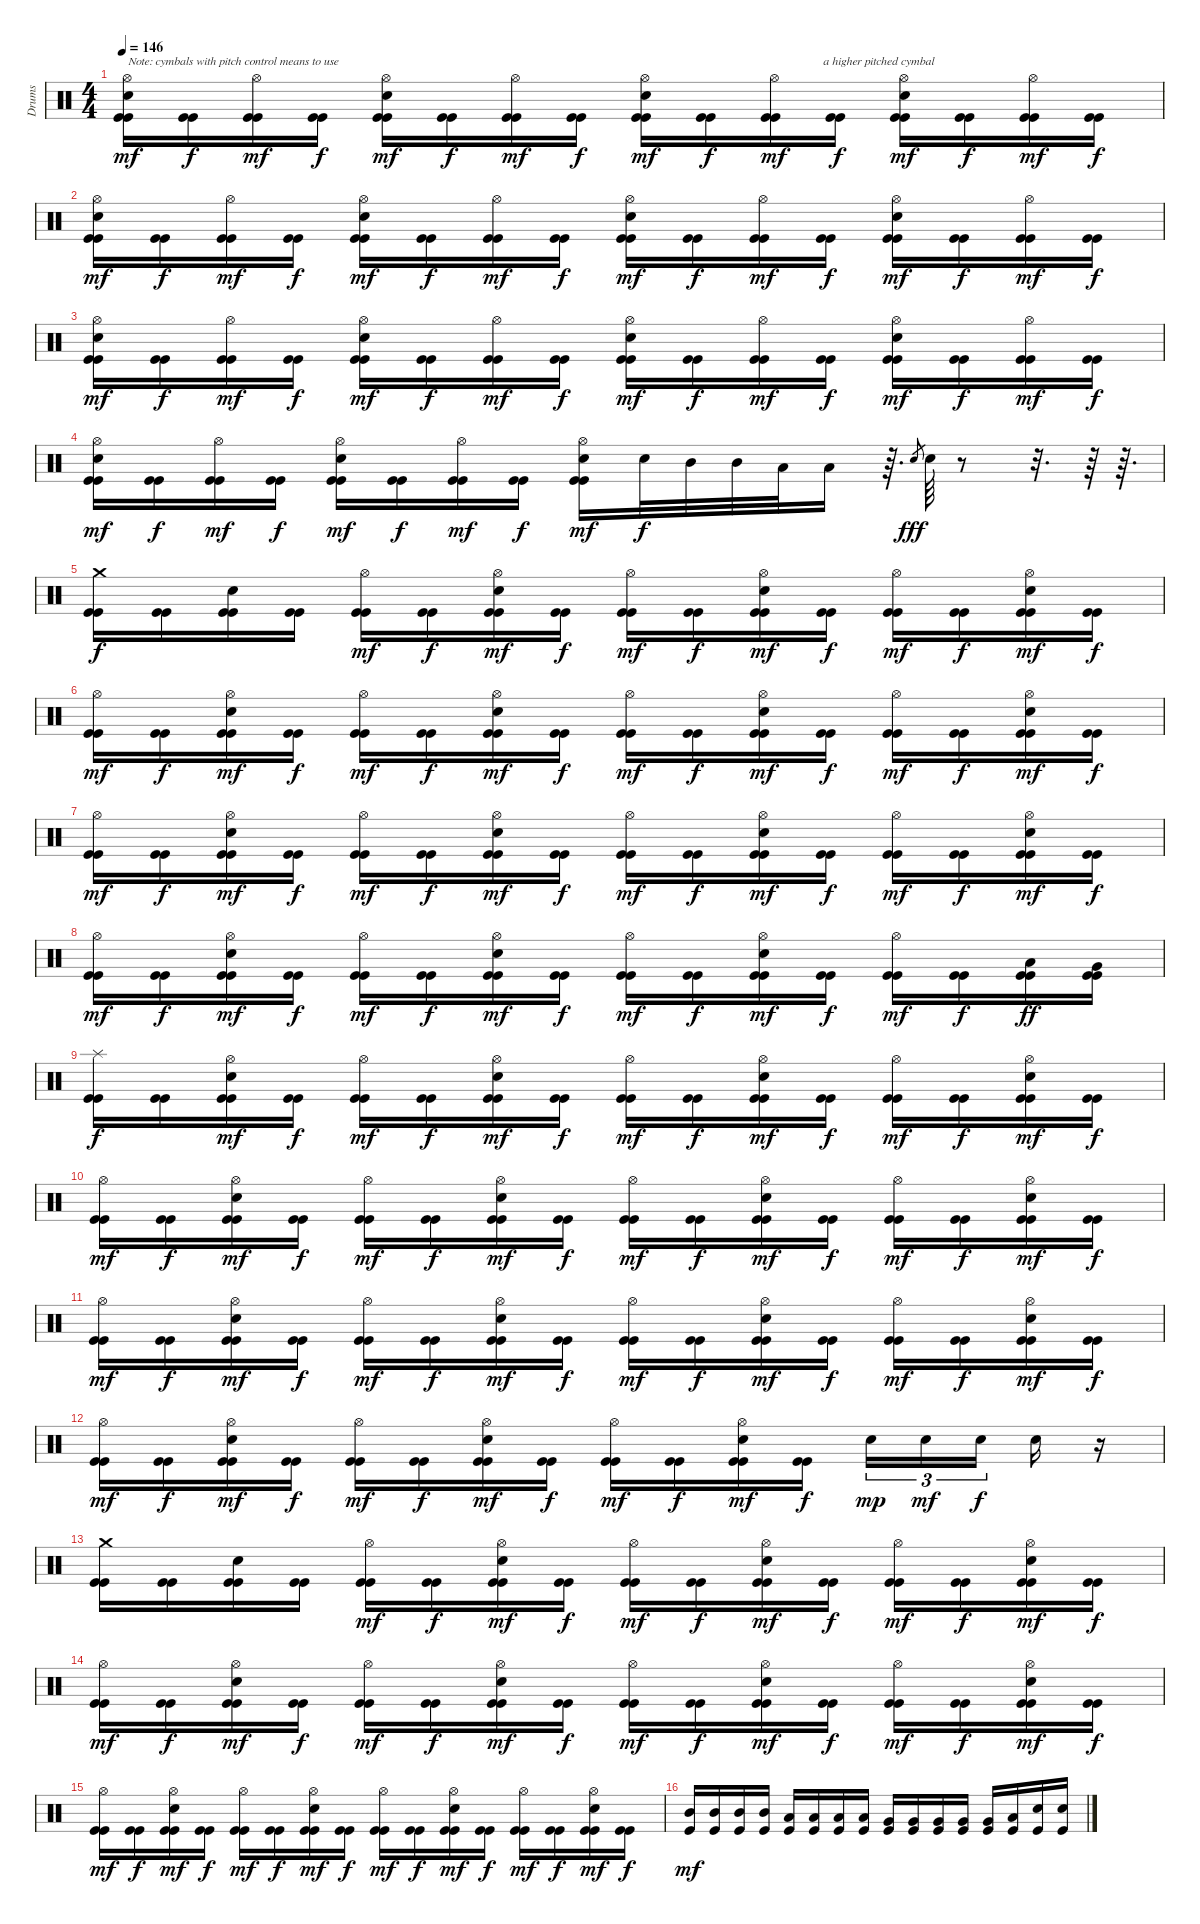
\track ("Drums" "Drums") {instrument percussion}
\staff {score}
\articulation defaults
\ts (4 4)
\tempo 146
\clef neutral
\ks c
("Hi-Hat (open)" "Electric Snare (hit)" "Kick (hit)" "Kick (hit)").16{txt "Note: cymbals with pitch control means to use" dy mf} ("Kick (hit)" "Kick (hit)").16{dy f} ("Hi-Hat (open)" "Kick (hit)" "Kick (hit)").16{dy mf} ("Kick (hit)" "Kick (hit)").16{dy f} ("Hi-Hat (open)" "Electric Snare (hit)" "Kick (hit)" "Kick (hit)").16{dy mf} ("Kick (hit)" "Kick (hit)").16{dy f} ("Hi-Hat (open)" "Kick (hit)" "Kick (hit)").16{dy mf} ("Kick (hit)" "Kick (hit)").16{dy f} ("Hi-Hat (open)" "Electric Snare (hit)" "Kick (hit)" "Kick (hit)").16{dy mf} ("Kick (hit)" "Kick (hit)").16{dy f} ("Hi-Hat (open)" "Kick (hit)" "Kick (hit)").16{txt "                a higher pitched cymbal" dy mf} ("Kick (hit)" "Kick (hit)").16{dy f} ("Hi-Hat (open)" "Electric Snare (hit)" "Kick (hit)" "Kick (hit)").16{dy mf} ("Kick (hit)" "Kick (hit)").16{dy f} ("Hi-Hat (open)" "Kick (hit)" "Kick (hit)").16{dy mf} ("Kick (hit)" "Kick (hit)").16{dy f} |
("Hi-Hat (open)" "Electric Snare (hit)" "Kick (hit)" "Kick (hit)").16{dy mf} ("Kick (hit)" "Kick (hit)").16{dy f} ("Hi-Hat (open)" "Kick (hit)" "Kick (hit)").16{dy mf} ("Kick (hit)" "Kick (hit)").16{dy f} ("Hi-Hat (open)" "Electric Snare (hit)" "Kick (hit)" "Kick (hit)").16{dy mf} ("Kick (hit)" "Kick (hit)").16{dy f} ("Hi-Hat (open)" "Kick (hit)" "Kick (hit)").16{dy mf} ("Kick (hit)" "Kick (hit)").16{dy f} ("Hi-Hat (open)" "Electric Snare (hit)" "Kick (hit)" "Kick (hit)").16{dy mf} ("Kick (hit)" "Kick (hit)").16{dy f} ("Hi-Hat (open)" "Kick (hit)" "Kick (hit)").16{dy mf} ("Kick (hit)" "Kick (hit)").16{dy f} ("Hi-Hat (open)" "Electric Snare (hit)" "Kick (hit)" "Kick (hit)").16{dy mf} ("Kick (hit)" "Kick (hit)").16{dy f} ("Hi-Hat (open)" "Kick (hit)" "Kick (hit)").16{dy mf} ("Kick (hit)" "Kick (hit)").16{dy f} |
("Hi-Hat (open)" "Electric Snare (hit)" "Kick (hit)" "Kick (hit)").16{dy mf} ("Kick (hit)" "Kick (hit)").16{dy f} ("Hi-Hat (open)" "Kick (hit)" "Kick (hit)").16{dy mf} ("Kick (hit)" "Kick (hit)").16{dy f} ("Hi-Hat (open)" "Electric Snare (hit)" "Kick (hit)" "Kick (hit)").16{dy mf} ("Kick (hit)" "Kick (hit)").16{dy f} ("Hi-Hat (open)" "Kick (hit)" "Kick (hit)").16{dy mf} ("Kick (hit)" "Kick (hit)").16{dy f} ("Hi-Hat (open)" "Electric Snare (hit)" "Kick (hit)" "Kick (hit)").16{dy mf} ("Kick (hit)" "Kick (hit)").16{dy f} ("Hi-Hat (open)" "Kick (hit)" "Kick (hit)").16{dy mf} ("Kick (hit)" "Kick (hit)").16{dy f} ("Hi-Hat (open)" "Electric Snare (hit)" "Kick (hit)" "Kick (hit)").16{dy mf} ("Kick (hit)" "Kick (hit)").16{dy f} ("Hi-Hat (open)" "Kick (hit)" "Kick (hit)").16{dy mf} ("Kick (hit)" "Kick (hit)").16{dy f} |
("Hi-Hat (open)" "Electric Snare (hit)" "Kick (hit)" "Kick (hit)").16{dy mf} ("Kick (hit)" "Kick (hit)").16{dy f} ("Hi-Hat (open)" "Kick (hit)" "Kick (hit)").16{dy mf} ("Kick (hit)" "Kick (hit)").16{dy f} ("Hi-Hat (open)" "Electric Snare (hit)" "Kick (hit)" "Kick (hit)").16{dy mf} ("Kick (hit)" "Kick (hit)").16{dy f} ("Hi-Hat (open)" "Kick (hit)" "Kick (hit)").16{dy mf} ("Kick (hit)" "Kick (hit)").16{dy f} ("Hi-Hat (open)" "Electric Snare (hit)" "Kick (hit)" "Kick (hit)").16{dy mf} "Electric Snare (hit)".32{dy f} "Mid Tom (hit)".32 "Mid Tom (hit)".32 "Low Tom (hit)".32 "Low Tom (hit)".16 r.64{d} "Electric Snare (hit)".8{gr dy fff} "Electric Snare (hit)".64 r.8 r.32{d} r.64 r.64{d} |
("Crash medium (hit)" "Kick (hit)" "Kick (hit)").16{dy f} ("Kick (hit)" "Kick (hit)").16 ("Electric Snare (hit)" "Kick (hit)" "Kick (hit)").16 ("Kick (hit)" "Kick (hit)").16 ("Hi-Hat (open)" "Kick (hit)" "Kick (hit)").16{dy mf} ("Kick (hit)" "Kick (hit)").16{dy f} ("Hi-Hat (open)" "Electric Snare (hit)" "Kick (hit)" "Kick (hit)").16{dy mf} ("Kick (hit)" "Kick (hit)").16{dy f} ("Hi-Hat (open)" "Kick (hit)" "Kick (hit)").16{dy mf} ("Kick (hit)" "Kick (hit)").16{dy f} ("Hi-Hat (open)" "Electric Snare (hit)" "Kick (hit)" "Kick (hit)").16{dy mf} ("Kick (hit)" "Kick (hit)").16{dy f} ("Hi-Hat (open)" "Kick (hit)" "Kick (hit)").16{dy mf} ("Kick (hit)" "Kick (hit)").16{dy f} ("Hi-Hat (open)" "Electric Snare (hit)" "Kick (hit)" "Kick (hit)").16{dy mf} ("Kick (hit)" "Kick (hit)").16{dy f} |
("Hi-Hat (open)" "Kick (hit)" "Kick (hit)").16{dy mf} ("Kick (hit)" "Kick (hit)").16{dy f} ("Hi-Hat (open)" "Electric Snare (hit)" "Kick (hit)" "Kick (hit)").16{dy mf} ("Kick (hit)" "Kick (hit)").16{dy f} ("Hi-Hat (open)" "Kick (hit)" "Kick (hit)").16{dy mf} ("Kick (hit)" "Kick (hit)").16{dy f} ("Hi-Hat (open)" "Electric Snare (hit)" "Kick (hit)" "Kick (hit)").16{dy mf} ("Kick (hit)" "Kick (hit)").16{dy f} ("Hi-Hat (open)" "Kick (hit)" "Kick (hit)").16{dy mf} ("Kick (hit)" "Kick (hit)").16{dy f} ("Hi-Hat (open)" "Electric Snare (hit)" "Kick (hit)" "Kick (hit)").16{dy mf} ("Kick (hit)" "Kick (hit)").16{dy f} ("Hi-Hat (open)" "Kick (hit)" "Kick (hit)").16{dy mf} ("Kick (hit)" "Kick (hit)").16{dy f} ("Hi-Hat (open)" "Electric Snare (hit)" "Kick (hit)" "Kick (hit)").16{dy mf} ("Kick (hit)" "Kick (hit)").16{dy f} |
("Hi-Hat (open)" "Kick (hit)" "Kick (hit)").16{dy mf} ("Kick (hit)" "Kick (hit)").16{dy f} ("Hi-Hat (open)" "Electric Snare (hit)" "Kick (hit)" "Kick (hit)").16{dy mf} ("Kick (hit)" "Kick (hit)").16{dy f} ("Hi-Hat (open)" "Kick (hit)" "Kick (hit)").16{dy mf} ("Kick (hit)" "Kick (hit)").16{dy f} ("Hi-Hat (open)" "Electric Snare (hit)" "Kick (hit)" "Kick (hit)").16{dy mf} ("Kick (hit)" "Kick (hit)").16{dy f} ("Hi-Hat (open)" "Kick (hit)" "Kick (hit)").16{dy mf} ("Kick (hit)" "Kick (hit)").16{dy f} ("Hi-Hat (open)" "Electric Snare (hit)" "Kick (hit)" "Kick (hit)").16{dy mf} ("Kick (hit)" "Kick (hit)").16{dy f} ("Hi-Hat (open)" "Kick (hit)" "Kick (hit)").16{dy mf} ("Kick (hit)" "Kick (hit)").16{dy f} ("Hi-Hat (open)" "Electric Snare (hit)" "Kick (hit)" "Kick (hit)").16{dy mf} ("Kick (hit)" "Kick (hit)").16{dy f} |
("Hi-Hat (open)" "Kick (hit)" "Kick (hit)").16{dy mf} ("Kick (hit)" "Kick (hit)").16{dy f} ("Hi-Hat (open)" "Electric Snare (hit)" "Kick (hit)" "Kick (hit)").16{dy mf} ("Kick (hit)" "Kick (hit)").16{dy f} ("Hi-Hat (open)" "Kick (hit)" "Kick (hit)").16{dy mf} ("Kick (hit)" "Kick (hit)").16{dy f} ("Hi-Hat (open)" "Electric Snare (hit)" "Kick (hit)" "Kick (hit)").16{dy mf} ("Kick (hit)" "Kick (hit)").16{dy f} ("Hi-Hat (open)" "Kick (hit)" "Kick (hit)").16{dy mf} ("Kick (hit)" "Kick (hit)").16{dy f} ("Hi-Hat (open)" "Electric Snare (hit)" "Kick (hit)" "Kick (hit)").16{dy mf} ("Kick (hit)" "Kick (hit)").16{dy f} ("Hi-Hat (open)" "Kick (hit)" "Kick (hit)").16{dy mf} ("Kick (hit)" "Kick (hit)").16{dy f} ("Low Tom (hit)" "Kick (hit)" "Kick (hit)").16{dy ff} ("Very Low Tom (hit)" "Kick (hit)" "Kick (hit)").16 |
("Splash (hit)" "Kick (hit)" "Kick (hit)").16{dy f} ("Kick (hit)" "Kick (hit)").16 ("Hi-Hat (open)" "Electric Snare (hit)" "Kick (hit)" "Kick (hit)").16{dy mf} ("Kick (hit)" "Kick (hit)").16{dy f} ("Hi-Hat (open)" "Kick (hit)" "Kick (hit)").16{dy mf} ("Kick (hit)" "Kick (hit)").16{dy f} ("Hi-Hat (open)" "Electric Snare (hit)" "Kick (hit)" "Kick (hit)").16{dy mf} ("Kick (hit)" "Kick (hit)").16{dy f} ("Hi-Hat (open)" "Kick (hit)" "Kick (hit)").16{dy mf} ("Kick (hit)" "Kick (hit)").16{dy f} ("Hi-Hat (open)" "Electric Snare (hit)" "Kick (hit)" "Kick (hit)").16{dy mf} ("Kick (hit)" "Kick (hit)").16{dy f} ("Hi-Hat (open)" "Kick (hit)" "Kick (hit)").16{dy mf} ("Kick (hit)" "Kick (hit)").16{dy f} ("Hi-Hat (open)" "Electric Snare (hit)" "Kick (hit)" "Kick (hit)").16{dy mf} ("Kick (hit)" "Kick (hit)").16{dy f} |
("Hi-Hat (open)" "Kick (hit)" "Kick (hit)").16{dy mf} ("Kick (hit)" "Kick (hit)").16{dy f} ("Hi-Hat (open)" "Electric Snare (hit)" "Kick (hit)" "Kick (hit)").16{dy mf} ("Kick (hit)" "Kick (hit)").16{dy f} ("Hi-Hat (open)" "Kick (hit)" "Kick (hit)").16{dy mf} ("Kick (hit)" "Kick (hit)").16{dy f} ("Hi-Hat (open)" "Electric Snare (hit)" "Kick (hit)" "Kick (hit)").16{dy mf} ("Kick (hit)" "Kick (hit)").16{dy f} ("Hi-Hat (open)" "Kick (hit)" "Kick (hit)").16{dy mf} ("Kick (hit)" "Kick (hit)").16{dy f} ("Hi-Hat (open)" "Electric Snare (hit)" "Kick (hit)" "Kick (hit)").16{dy mf} ("Kick (hit)" "Kick (hit)").16{dy f} ("Hi-Hat (open)" "Kick (hit)" "Kick (hit)").16{dy mf} ("Kick (hit)" "Kick (hit)").16{dy f} ("Hi-Hat (open)" "Electric Snare (hit)" "Kick (hit)" "Kick (hit)").16{dy mf} ("Kick (hit)" "Kick (hit)").16{dy f} |
("Hi-Hat (open)" "Kick (hit)" "Kick (hit)").16{dy mf} ("Kick (hit)" "Kick (hit)").16{dy f} ("Hi-Hat (open)" "Electric Snare (hit)" "Kick (hit)" "Kick (hit)").16{dy mf} ("Kick (hit)" "Kick (hit)").16{dy f} ("Hi-Hat (open)" "Kick (hit)" "Kick (hit)").16{dy mf} ("Kick (hit)" "Kick (hit)").16{dy f} ("Hi-Hat (open)" "Electric Snare (hit)" "Kick (hit)" "Kick (hit)").16{dy mf} ("Kick (hit)" "Kick (hit)").16{dy f} ("Hi-Hat (open)" "Kick (hit)" "Kick (hit)").16{dy mf} ("Kick (hit)" "Kick (hit)").16{dy f} ("Hi-Hat (open)" "Electric Snare (hit)" "Kick (hit)" "Kick (hit)").16{dy mf} ("Kick (hit)" "Kick (hit)").16{dy f} ("Hi-Hat (open)" "Kick (hit)" "Kick (hit)").16{dy mf} ("Kick (hit)" "Kick (hit)").16{dy f} ("Hi-Hat (open)" "Electric Snare (hit)" "Kick (hit)" "Kick (hit)").16{dy mf} ("Kick (hit)" "Kick (hit)").16{dy f} |
("Hi-Hat (open)" "Kick (hit)" "Kick (hit)").16{dy mf} ("Kick (hit)" "Kick (hit)").16{dy f} ("Hi-Hat (open)" "Electric Snare (hit)" "Kick (hit)" "Kick (hit)").16{dy mf} ("Kick (hit)" "Kick (hit)").16{dy f} ("Hi-Hat (open)" "Kick (hit)" "Kick (hit)").16{dy mf} ("Kick (hit)" "Kick (hit)").16{dy f} ("Hi-Hat (open)" "Electric Snare (hit)" "Kick (hit)" "Kick (hit)").16{dy mf} ("Kick (hit)" "Kick (hit)").16{dy f} ("Hi-Hat (open)" "Kick (hit)" "Kick (hit)").16{dy mf} ("Kick (hit)" "Kick (hit)").16{dy f} ("Hi-Hat (open)" "Electric Snare (hit)" "Kick (hit)" "Kick (hit)").16{dy mf} ("Kick (hit)" "Kick (hit)").16{dy f} "Electric Snare (hit)".16{tu (3 2) dy mp} "Electric Snare (hit)".16{tu (3 2) dy mf} "Electric Snare (hit)".16{tu (3 2) dy f} "Electric Snare (hit)".16 r.16 |
("Crash medium (hit)" "Kick (hit)" "Kick (hit)").16 ("Kick (hit)" "Kick (hit)").16 ("Electric Snare (hit)" "Kick (hit)" "Kick (hit)").16 ("Kick (hit)" "Kick (hit)").16 ("Hi-Hat (open)" "Kick (hit)" "Kick (hit)").16{dy mf} ("Kick (hit)" "Kick (hit)").16{dy f} ("Hi-Hat (open)" "Electric Snare (hit)" "Kick (hit)" "Kick (hit)").16{dy mf} ("Kick (hit)" "Kick (hit)").16{dy f} ("Hi-Hat (open)" "Kick (hit)" "Kick (hit)").16{dy mf} ("Kick (hit)" "Kick (hit)").16{dy f} ("Hi-Hat (open)" "Electric Snare (hit)" "Kick (hit)" "Kick (hit)").16{dy mf} ("Kick (hit)" "Kick (hit)").16{dy f} ("Hi-Hat (open)" "Kick (hit)" "Kick (hit)").16{dy mf} ("Kick (hit)" "Kick (hit)").16{dy f} ("Hi-Hat (open)" "Electric Snare (hit)" "Kick (hit)" "Kick (hit)").16{dy mf} ("Kick (hit)" "Kick (hit)").16{dy f} |
("Hi-Hat (open)" "Kick (hit)" "Kick (hit)").16{dy mf} ("Kick (hit)" "Kick (hit)").16{dy f} ("Hi-Hat (open)" "Electric Snare (hit)" "Kick (hit)" "Kick (hit)").16{dy mf} ("Kick (hit)" "Kick (hit)").16{dy f} ("Hi-Hat (open)" "Kick (hit)" "Kick (hit)").16{dy mf} ("Kick (hit)" "Kick (hit)").16{dy f} ("Hi-Hat (open)" "Electric Snare (hit)" "Kick (hit)" "Kick (hit)").16{dy mf} ("Kick (hit)" "Kick (hit)").16{dy f} ("Hi-Hat (open)" "Kick (hit)" "Kick (hit)").16{dy mf} ("Kick (hit)" "Kick (hit)").16{dy f} ("Hi-Hat (open)" "Electric Snare (hit)" "Kick (hit)" "Kick (hit)").16{dy mf} ("Kick (hit)" "Kick (hit)").16{dy f} ("Hi-Hat (open)" "Kick (hit)" "Kick (hit)").16{dy mf} ("Kick (hit)" "Kick (hit)").16{dy f} ("Hi-Hat (open)" "Electric Snare (hit)" "Kick (hit)" "Kick (hit)").16{dy mf} ("Kick (hit)" "Kick (hit)").16{dy f} |
("Hi-Hat (open)" "Kick (hit)" "Kick (hit)").16{dy mf} ("Kick (hit)" "Kick (hit)").16{dy f} ("Hi-Hat (open)" "Electric Snare (hit)" "Kick (hit)" "Kick (hit)").16{dy mf} ("Kick (hit)" "Kick (hit)").16{dy f} ("Hi-Hat (open)" "Kick (hit)" "Kick (hit)").16{dy mf} ("Kick (hit)" "Kick (hit)").16{dy f} ("Hi-Hat (open)" "Electric Snare (hit)" "Kick (hit)" "Kick (hit)").16{dy mf} ("Kick (hit)" "Kick (hit)").16{dy f} ("Hi-Hat (open)" "Kick (hit)" "Kick (hit)").16{dy mf} ("Kick (hit)" "Kick (hit)").16{dy f} ("Hi-Hat (open)" "Electric Snare (hit)" "Kick (hit)" "Kick (hit)").16{dy mf} ("Kick (hit)" "Kick (hit)").16{dy f} ("Hi-Hat (open)" "Kick (hit)" "Kick (hit)").16{dy mf} ("Kick (hit)" "Kick (hit)").16{dy f} ("Hi-Hat (open)" "Electric Snare (hit)" "Kick (hit)" "Kick (hit)").16{dy mf} ("Kick (hit)" "Kick (hit)").16{dy f} |
("Mid Tom (hit)" "Kick (hit)").16{dy mf} ("Mid Tom (hit)" "Kick (hit)").16 ("Mid Tom (hit)" "Kick (hit)").16 ("Mid Tom (hit)" "Kick (hit)").16 ("Low Tom (hit)" "Kick (hit)").16 ("Low Tom (hit)" "Kick (hit)").16 ("Low Tom (hit)" "Kick (hit)").16 ("Low Tom (hit)" "Kick (hit)").16 ("Very Low Tom (hit)" "Kick (hit)").16 ("Very Low Tom (hit)" "Kick (hit)").16 ("Very Low Tom (hit)" "Kick (hit)").16 ("Very Low Tom (hit)" "Kick (hit)").16 ("Very Low Tom (hit)" "Kick (hit)").16 ("Low Floor Tom (hit)" "Kick (hit)").16 ("Electric Snare (hit)" "Kick (hit)").16 ("Electric Snare (hit)" "Kick (hit)").16
